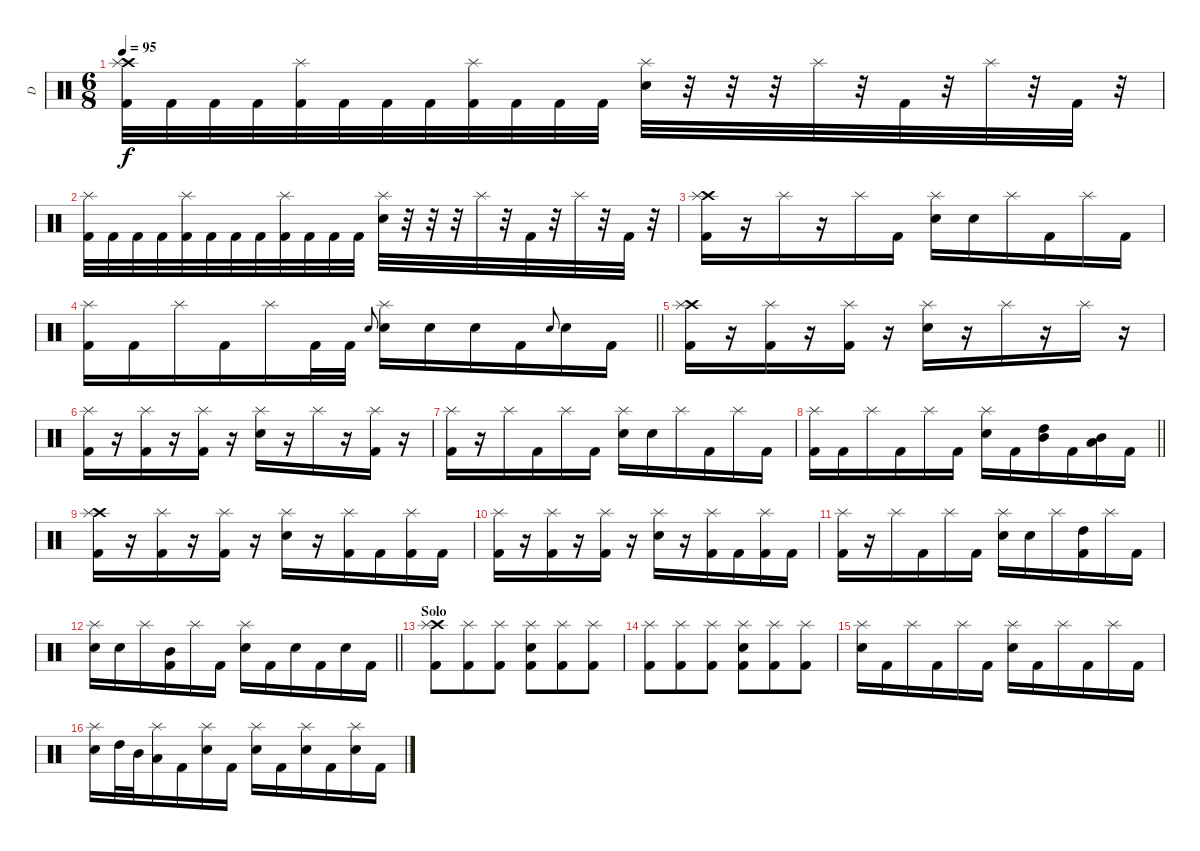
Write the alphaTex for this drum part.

\track ("D" "D") {instrument percussion}
\staff {score}
\articulation defaults
\ts (6 8)
\tempo 95
\clef neutral
\ks c
("Crash high (hit)" "Kick (hit) 2" "Splash (hit)").32{dy f} "Kick (hit) 2".32 "Kick (hit) 2".32 "Kick (hit) 2".32 ("Kick (hit) 2" "Splash (hit)").32 "Kick (hit) 2".32 "Kick (hit) 2".32 "Kick (hit) 2".32 ("Kick (hit) 2" "Splash (hit)").32 "Kick (hit) 2".32 "Kick (hit) 2".32 "Kick (hit) 2".32 ("Electric Snare (hit)" "Splash (hit)").32 r.32 r.32 r.32 "Splash (hit)".32 r.32 "Kick (hit) 2".32 r.32 "Splash (hit)".32 r.32 "Kick (hit) 2".32 r.32 |
("Kick (hit) 2" "Splash (hit)").32 "Kick (hit) 2".32 "Kick (hit) 2".32 "Kick (hit) 2".32 ("Kick (hit) 2" "Splash (hit)").32 "Kick (hit) 2".32 "Kick (hit) 2".32 "Kick (hit) 2".32 ("Kick (hit) 2" "Splash (hit)").32 "Kick (hit) 2".32 "Kick (hit) 2".32 "Kick (hit) 2".32 ("Electric Snare (hit)" "Splash (hit)").32 r.32 r.32 r.32 "Splash (hit)".32 r.32 "Kick (hit) 2".32 r.32 "Splash (hit)".32 r.32 "Kick (hit) 2".32 r.32 |
("Crash high (hit)" "Kick (hit) 2" "Splash (hit)").16 r.16 "Splash (hit)".16 r.16 "Splash (hit)".16 "Kick (hit) 2".16 ("Electric Snare (hit)" "Splash (hit)").16 "Electric Snare (hit)".16 "Splash (hit)".16 "Kick (hit) 2".16 "Splash (hit)".16 "Kick (hit) 2".16 |
\barLineRight lightlight
("Kick (hit) 2" "Splash (hit)").16 "Kick (hit) 2".16 "Splash (hit)".16 "Kick (hit) 2".16 "Splash (hit)".16 "Kick (hit) 2".32 "Kick (hit) 2".32 "Electric Snare (hit)".8{gr onbeat} ("Electric Snare (hit)" "Splash (hit)").16 "Electric Snare (hit)".16 "Electric Snare (hit)".16 "Kick (hit) 2".16 "Electric Snare (hit)".8{gr onbeat} "Electric Snare (hit)".16 "Kick (hit) 2".16 |
("Crash high (hit)" "Kick (hit) 2" "Splash (hit)").16 r.16 ("Kick (hit) 2" "Splash (hit)").16 r.16 ("Kick (hit) 2" "Splash (hit)").16 r.16 ("Electric Snare (hit)" "Splash (hit)").16 r.16 "Splash (hit)".16 r.16 "Splash (hit)".16 r.16 |
("Kick (hit) 2" "Splash (hit)").16 r.16 ("Kick (hit) 2" "Splash (hit)").16 r.16 ("Kick (hit) 2" "Splash (hit)").16 r.16 ("Electric Snare (hit)" "Splash (hit)").16 r.16 "Splash (hit)".16 r.16 ("Kick (hit) 2" "Splash (hit)").16 r.16 |
("Kick (hit) 2" "Splash (hit)").16 r.16 "Splash (hit)".16 "Kick (hit) 2".16 "Splash (hit)".16 "Kick (hit) 2".16 ("Electric Snare (hit)" "Splash (hit)").16 "Electric Snare (hit)".16 "Splash (hit)".16 "Kick (hit) 2".16 "Splash (hit)".16 "Kick (hit) 2".16 |
\barLineRight lightlight
("Kick (hit) 2" "Splash (hit)").16 "Kick (hit) 2".16 "Splash (hit)".16 "Kick (hit) 2".16 "Splash (hit)".16 "Kick (hit) 2".16 ("Electric Snare (hit)" "Splash (hit)").16 "Kick (hit) 2".16 ("Mid Tom (hit)" "High Tom (hit)").16 "Kick (hit) 2".16 ("Mid Tom (hit)" "Low Tom (hit)").16 "Kick (hit) 2".16 |
("Crash high (hit)" "Kick (hit) 2" "Splash (hit)").16 r.16 ("Kick (hit) 2" "Splash (hit)").16 r.16 ("Kick (hit) 2" "Splash (hit)").16 r.16 ("Electric Snare (hit)" "Splash (hit)").16 r.16 ("Kick (hit) 2" "Splash (hit)").16 "Kick (hit) 2".16 ("Kick (hit) 2" "Splash (hit)").16 "Kick (hit) 2".16 |
("Kick (hit) 2" "Splash (hit)").16 r.16 ("Kick (hit) 2" "Splash (hit)").16 r.16 ("Kick (hit) 2" "Splash (hit)").16 r.16 ("Electric Snare (hit)" "Splash (hit)").16 r.16 ("Kick (hit) 2" "Splash (hit)").16 "Kick (hit) 2".16 ("Kick (hit) 2" "Splash (hit)").16 "Kick (hit) 2".16 |
("Kick (hit) 2" "Splash (hit)").16 r.16 "Splash (hit)".16 "Kick (hit) 2".16 "Splash (hit)".16 "Kick (hit) 2".16 ("Electric Snare (hit)" "Splash (hit)").16 "Electric Snare (hit)".16 "Splash (hit)".16 ("High Tom (hit)" "Kick (hit) 2").16 "Splash (hit)".16 "Kick (hit) 2".16 |
\barLineRight lightlight
("Electric Snare (hit)" "Splash (hit)").16 "Electric Snare (hit)".16 "Splash (hit)".16 ("Mid Tom (hit)" "Kick (hit) 2").16 "Splash (hit)".16 "Kick (hit) 2".16 ("Electric Snare (hit)" "Splash (hit)").16 "Kick (hit) 2".16 "Electric Snare (hit)".16 "Kick (hit) 2".16 "Electric Snare (hit)".16 "Kick (hit) 2".16 |
\section ("" "Solo")
("Crash high (hit)" "Kick (hit) 2" "Splash (hit)").8 ("Kick (hit) 2" "Splash (hit)").8 ("Kick (hit) 2" "Splash (hit)").8 ("Electric Snare (hit)" "Kick (hit) 2" "Splash (hit)").8 ("Kick (hit) 2" "Splash (hit)").8 ("Kick (hit) 2" "Splash (hit)").8 |
("Kick (hit) 2" "Splash (hit)").8 ("Kick (hit) 2" "Splash (hit)").8 ("Kick (hit) 2" "Splash (hit)").8 ("Electric Snare (hit)" "Kick (hit) 2" "Splash (hit)").8 ("Kick (hit) 2" "Splash (hit)").8 ("Kick (hit) 2" "Splash (hit)").8 |
("Electric Snare (hit)" "Splash (hit)").16 "Kick (hit) 2".16 "Splash (hit)".16 "Kick (hit) 2".16 "Splash (hit)".16 "Kick (hit) 2".16 ("Electric Snare (hit)" "Splash (hit)").16 "Kick (hit) 2".16 "Splash (hit)".16 "Kick (hit) 2".16 "Splash (hit)".16 "Kick (hit) 2".16 |
("Electric Snare (hit)" "Splash (hit)").16 "High Tom (hit)".32 "Mid Tom (hit)".32 ("Low Tom (hit)" "Splash (hit)").16 "Kick (hit) 2".16 ("Electric Snare (hit)" "Splash (hit)").16 "Kick (hit) 2".16 ("Electric Snare (hit)" "Splash (hit)").16 "Kick (hit) 2".16 ("Electric Snare (hit)" "Splash (hit)").16 "Kick (hit) 2".16 ("Electric Snare (hit)" "Splash (hit)").16 "Kick (hit) 2".16
